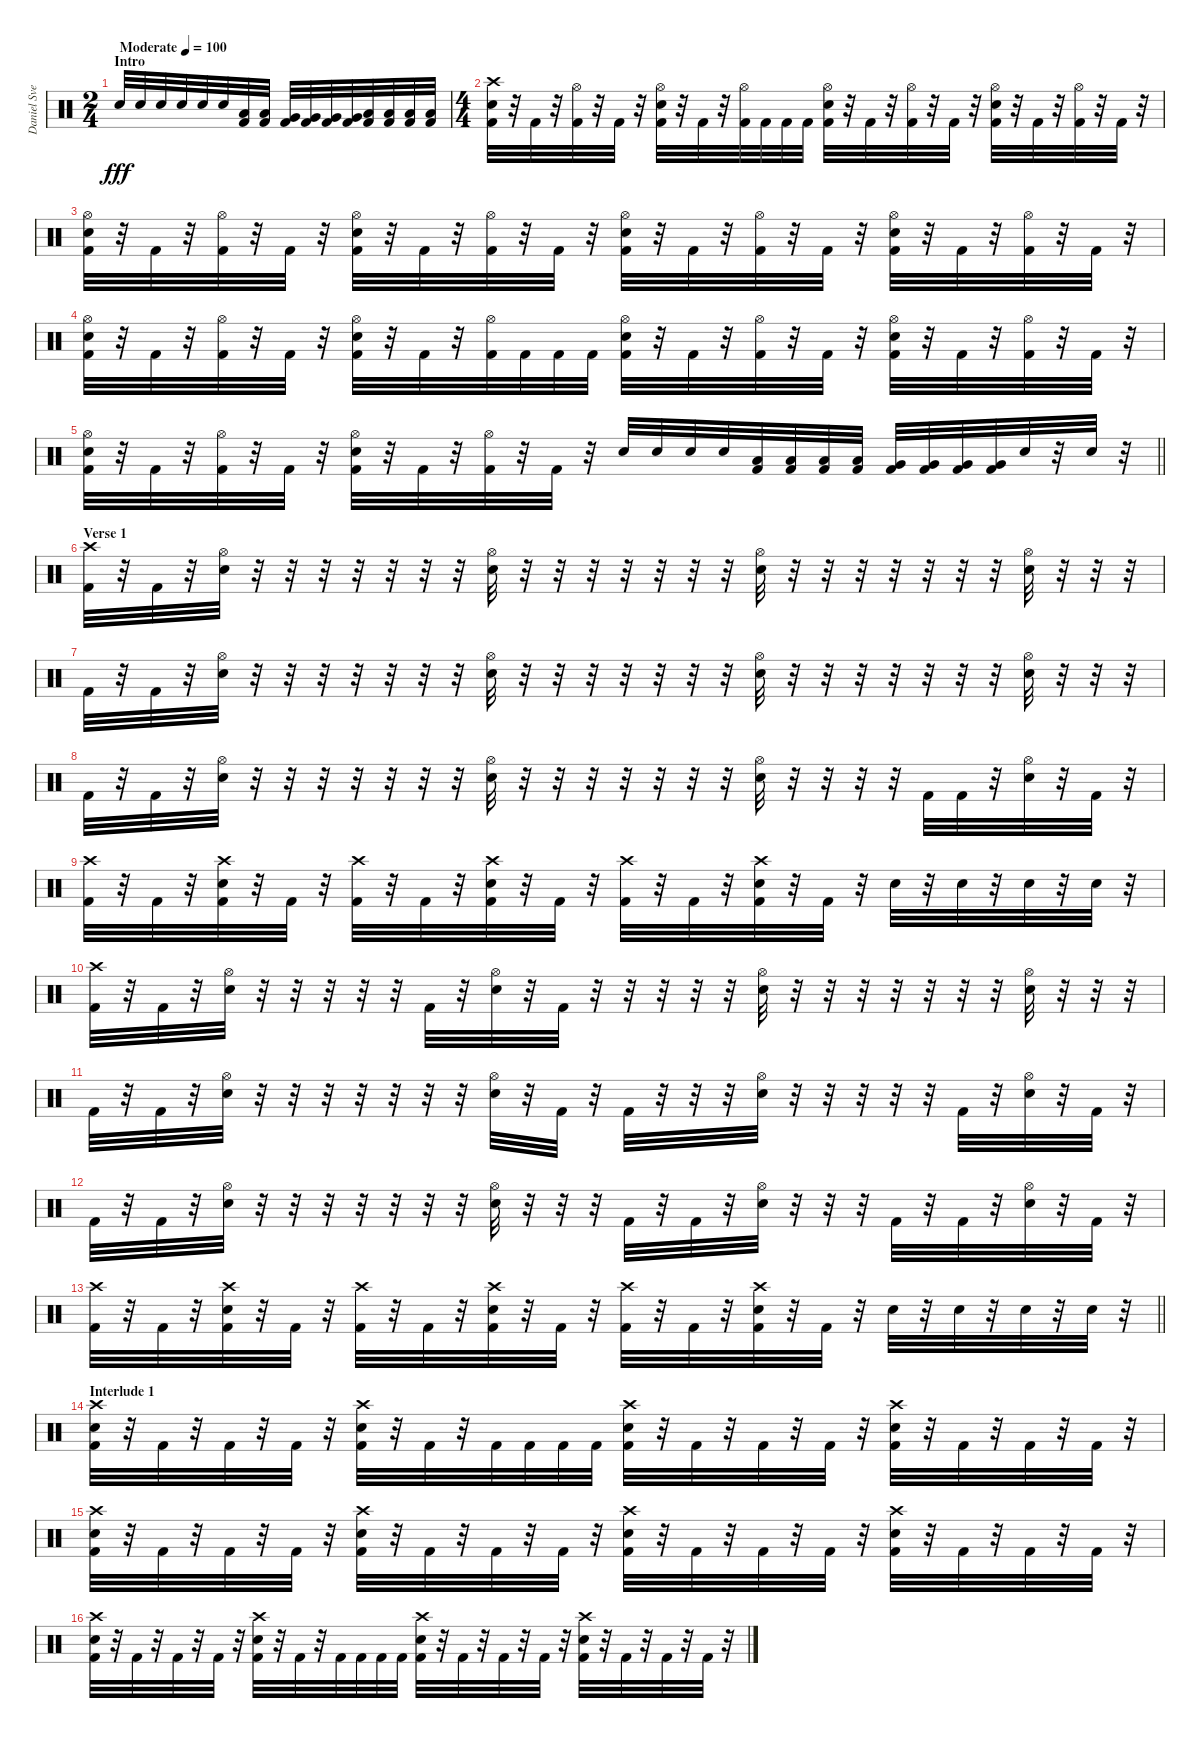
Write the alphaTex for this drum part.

\track ("Daniel Svensson" "Daniel Sve") {instrument percussion}
\staff {score}
\articulation defaults
\ts (2 4)
\section ("" "Intro")
\tempo (100 "Moderate")
\clef neutral
\ks c "Electric Snare (hit)".32{dy fff} "Electric Snare (hit)".32 "Electric Snare (hit)".32 "Electric Snare (hit)".32 "Electric Snare (hit)".32 "Electric Snare (hit)".32
("Low Tom (hit)" "Kick (hit) 2").32 ("Low Tom (hit)" "Kick (hit) 2").32 ("Very Low Tom (hit)" "Kick (hit) 2").32 ("Very Low Tom (hit)" "Kick (hit) 2").32 ("Very Low Tom (hit)" "Kick (hit) 2").32 ("Very Low Tom (hit)" "Kick (hit) 2").32 ("Low Floor Tom (hit)" "Kick (hit) 2").32 ("Low Floor Tom (hit)" "Kick (hit) 2").32 ("Low Floor Tom (hit)" "Kick (hit) 2").32 ("Low Floor Tom (hit)" "Kick (hit) 2").32 |
\ts (4 4)
("Crash high (hit)" "Electric Snare (hit)" "Kick (hit) 2").32 r.32 "Kick (hit) 2".32 r.32 ("Hi-Hat (open)" "Kick (hit) 2").32 r.32 "Kick (hit) 2".32 r.32 ("Hi-Hat (open)" "Electric Snare (hit)" "Kick (hit) 2").32 r.32 "Kick (hit) 2".32 r.32 ("Hi-Hat (open)" "Kick (hit) 2").32 "Kick (hit) 2".32 "Kick (hit) 2".32 "Kick (hit) 2".32 ("Hi-Hat (open)" "Electric Snare (hit)" "Kick (hit) 2").32 r.32 "Kick (hit) 2".32 r.32 ("Hi-Hat (open)" "Kick (hit) 2").32 r.32 "Kick (hit) 2".32 r.32 ("Hi-Hat (open)" "Electric Snare (hit)" "Kick (hit) 2").32 r.32 "Kick (hit) 2".32 r.32 ("Hi-Hat (open)" "Kick (hit) 2").32 r.32 "Kick (hit) 2".32 r.32 |
("Hi-Hat (open)" "Electric Snare (hit)" "Kick (hit) 2").32 r.32 "Kick (hit) 2".32 r.32 ("Hi-Hat (open)" "Kick (hit) 2").32 r.32 "Kick (hit) 2".32 r.32 ("Hi-Hat (open)" "Electric Snare (hit)" "Kick (hit) 2").32 r.32 "Kick (hit) 2".32 r.32 ("Hi-Hat (open)" "Kick (hit) 2").32 r.32 "Kick (hit) 2".32 r.32 ("Hi-Hat (open)" "Electric Snare (hit)" "Kick (hit) 2").32 r.32 "Kick (hit) 2".32 r.32 ("Hi-Hat (open)" "Kick (hit) 2").32 r.32 "Kick (hit) 2".32 r.32 ("Hi-Hat (open)" "Electric Snare (hit)" "Kick (hit) 2").32 r.32 "Kick (hit) 2".32 r.32 ("Hi-Hat (open)" "Kick (hit) 2").32 r.32 "Kick (hit) 2".32 r.32 |
("Hi-Hat (open)" "Electric Snare (hit)" "Kick (hit) 2").32 r.32 "Kick (hit) 2".32 r.32 ("Hi-Hat (open)" "Kick (hit) 2").32 r.32 "Kick (hit) 2".32 r.32 ("Hi-Hat (open)" "Electric Snare (hit)" "Kick (hit) 2").32 r.32 "Kick (hit) 2".32 r.32 ("Hi-Hat (open)" "Kick (hit) 2").32 "Kick (hit) 2".32 "Kick (hit) 2".32 "Kick (hit) 2".32 ("Hi-Hat (open)" "Electric Snare (hit)" "Kick (hit) 2").32 r.32 "Kick (hit) 2".32 r.32 ("Hi-Hat (open)" "Kick (hit) 2").32 r.32 "Kick (hit) 2".32 r.32 ("Hi-Hat (open)" "Electric Snare (hit)" "Kick (hit) 2").32 r.32 "Kick (hit) 2".32 r.32 ("Hi-Hat (open)" "Kick (hit) 2").32 r.32 "Kick (hit) 2".32 r.32 |
\barLineRight lightlight
("Hi-Hat (open)" "Electric Snare (hit)" "Kick (hit) 2").32 r.32 "Kick (hit) 2".32 r.32 ("Hi-Hat (open)" "Kick (hit) 2").32 r.32 "Kick (hit) 2".32 r.32 ("Hi-Hat (open)" "Electric Snare (hit)" "Kick (hit) 2").32 r.32 "Kick (hit) 2".32 r.32 ("Hi-Hat (open)" "Kick (hit) 2").32 r.32 "Kick (hit) 2".32 r.32 "Electric Snare (hit)".32 "Electric Snare (hit)".32 "Electric Snare (hit)".32 "Electric Snare (hit)".32 ("Low Tom (hit)" "Kick (hit) 2").32 ("Low Tom (hit)" "Kick (hit) 2").32 ("Low Tom (hit)" "Kick (hit) 2").32 ("Low Tom (hit)" "Kick (hit) 2").32 ("Very Low Tom (hit)" "Kick (hit) 2").32 ("Very Low Tom (hit)" "Kick (hit) 2").32 ("Very Low Tom (hit)" "Kick (hit) 2").32 ("Very Low Tom (hit)" "Kick (hit) 2").32 "Electric Snare (hit)".32 r.32 "Electric Snare (hit)".32 r.32 |
\section ("" "Verse 1")
("Crash high (hit)" "Kick (hit) 2").32 r.32 "Kick (hit) 2".32 r.32 ("Hi-Hat (open)" "Electric Snare (hit)").32 r.32 r.32 r.32 r.32 r.32 r.32 r.32 ("Hi-Hat (open)" "Electric Snare (hit)").32 r.32 r.32 r.32 r.32 r.32 r.32 r.32 ("Hi-Hat (open)" "Electric Snare (hit)").32 r.32 r.32 r.32 r.32 r.32 r.32 r.32 ("Hi-Hat (open)" "Electric Snare (hit)").32 r.32 r.32 r.32 |
"Kick (hit) 2".32 r.32 "Kick (hit) 2".32 r.32 ("Hi-Hat (open)" "Electric Snare (hit)").32 r.32 r.32 r.32 r.32 r.32 r.32 r.32 ("Hi-Hat (open)" "Electric Snare (hit)").32 r.32 r.32 r.32 r.32 r.32 r.32 r.32 ("Hi-Hat (open)" "Electric Snare (hit)").32 r.32 r.32 r.32 r.32 r.32 r.32 r.32 ("Hi-Hat (open)" "Electric Snare (hit)").32 r.32 r.32 r.32 |
"Kick (hit) 2".32 r.32 "Kick (hit) 2".32 r.32 ("Hi-Hat (open)" "Electric Snare (hit)").32 r.32 r.32 r.32 r.32 r.32 r.32 r.32 ("Hi-Hat (open)" "Electric Snare (hit)").32 r.32 r.32 r.32 r.32 r.32 r.32 r.32 ("Hi-Hat (open)" "Electric Snare (hit)").32 r.32 r.32 r.32 r.32 "Kick (hit) 2".32 "Kick (hit) 2".32 r.32 ("Hi-Hat (open)" "Electric Snare (hit)").32 r.32 "Kick (hit) 2".32 r.32 |
("Crash high (hit)" "Kick (hit) 2").32 r.32 "Kick (hit) 2".32 r.32 ("Crash high (hit)" "Electric Snare (hit)" "Kick (hit) 2").32 r.32 "Kick (hit) 2".32 r.32 ("Crash high (hit)" "Kick (hit) 2").32 r.32 "Kick (hit) 2".32 r.32 ("Crash high (hit)" "Electric Snare (hit)" "Kick (hit) 2").32 r.32 "Kick (hit) 2".32 r.32 ("Crash high (hit)" "Kick (hit) 2").32 r.32 "Kick (hit) 2".32 r.32 ("Crash high (hit)" "Electric Snare (hit)" "Kick (hit) 2").32 r.32 "Kick (hit) 2".32 r.32 "Electric Snare (hit)".32 r.32 "Electric Snare (hit)".32 r.32 "Electric Snare (hit)".32 r.32 "Electric Snare (hit)".32 r.32 |
("Crash high (hit)" "Kick (hit) 2").32 r.32 "Kick (hit) 2".32 r.32 ("Hi-Hat (open)" "Electric Snare (hit)").32 r.32 r.32 r.32 r.32 r.32 "Kick (hit) 2".32 r.32 ("Hi-Hat (open)" "Electric Snare (hit)").32 r.32 "Kick (hit) 2".32 r.32 r.32 r.32 r.32 r.32 ("Hi-Hat (open)" "Electric Snare (hit)").32 r.32 r.32 r.32 r.32 r.32 r.32 r.32 ("Hi-Hat (open)" "Electric Snare (hit)").32 r.32 r.32 r.32 |
"Kick (hit) 2".32 r.32 "Kick (hit) 2".32 r.32 ("Hi-Hat (open)" "Electric Snare (hit)").32 r.32 r.32 r.32 r.32 r.32 r.32 r.32 ("Hi-Hat (open)" "Electric Snare (hit)").32 r.32 "Kick (hit) 2".32 r.32 "Kick (hit) 2".32 r.32 r.32 r.32 ("Hi-Hat (open)" "Electric Snare (hit)").32 r.32 r.32 r.32 r.32 r.32 "Kick (hit) 2".32 r.32 ("Hi-Hat (open)" "Electric Snare (hit)").32 r.32 "Kick (hit) 2".32 r.32 |
"Kick (hit) 2".32 r.32 "Kick (hit) 2".32 r.32 ("Hi-Hat (open)" "Electric Snare (hit)").32 r.32 r.32 r.32 r.32 r.32 r.32 r.32 ("Hi-Hat (open)" "Electric Snare (hit)").32 r.32 r.32 r.32 "Kick (hit) 2".32 r.32 "Kick (hit) 2".32 r.32 ("Hi-Hat (open)" "Electric Snare (hit)").32 r.32 r.32 r.32 "Kick (hit) 2".32 r.32 "Kick (hit) 2".32 r.32 ("Hi-Hat (open)" "Electric Snare (hit)").32 r.32 "Kick (hit) 2".32 r.32 |
\barLineRight lightlight
("Crash high (hit)" "Kick (hit) 2").32 r.32 "Kick (hit) 2".32 r.32 ("Crash high (hit)" "Electric Snare (hit)" "Kick (hit) 2").32 r.32 "Kick (hit) 2".32 r.32 ("Crash high (hit)" "Kick (hit) 2").32 r.32 "Kick (hit) 2".32 r.32 ("Crash high (hit)" "Electric Snare (hit)" "Kick (hit) 2").32 r.32 "Kick (hit) 2".32 r.32 ("Crash high (hit)" "Kick (hit) 2").32 r.32 "Kick (hit) 2".32 r.32 ("Crash high (hit)" "Electric Snare (hit)" "Kick (hit) 2").32 r.32 "Kick (hit) 2".32 r.32 "Electric Snare (hit)".32 r.32 "Electric Snare (hit)".32 r.32 "Electric Snare (hit)".32 r.32 "Electric Snare (hit)".32 r.32 |
\section ("" "Interlude 1")
("Crash high (hit)" "Electric Snare (hit)" "Kick (hit) 2").32 r.32 "Kick (hit) 2".32 r.32 "Kick (hit) 2".32 r.32 "Kick (hit) 2".32 r.32 ("Crash high (hit)" "Electric Snare (hit)" "Kick (hit) 2").32 r.32 "Kick (hit) 2".32 r.32 "Kick (hit) 2".32 "Kick (hit) 2".32 "Kick (hit) 2".32 "Kick (hit) 2".32 ("Crash high (hit)" "Electric Snare (hit)" "Kick (hit) 2").32 r.32 "Kick (hit) 2".32 r.32 "Kick (hit) 2".32 r.32 "Kick (hit) 2".32 r.32 ("Crash high (hit)" "Electric Snare (hit)" "Kick (hit) 2").32 r.32 "Kick (hit) 2".32 r.32 "Kick (hit) 2".32 r.32 "Kick (hit) 2".32 r.32 |
("Crash high (hit)" "Electric Snare (hit)" "Kick (hit) 2").32 r.32 "Kick (hit) 2".32 r.32 "Kick (hit) 2".32 r.32 "Kick (hit) 2".32 r.32 ("Crash high (hit)" "Electric Snare (hit)" "Kick (hit) 2").32 r.32 "Kick (hit) 2".32 r.32 "Kick (hit) 2".32 r.32 "Kick (hit) 2".32 r.32 ("Crash high (hit)" "Electric Snare (hit)" "Kick (hit) 2").32 r.32 "Kick (hit) 2".32 r.32 "Kick (hit) 2".32 r.32 "Kick (hit) 2".32 r.32 ("Crash high (hit)" "Electric Snare (hit)" "Kick (hit) 2").32 r.32 "Kick (hit) 2".32 r.32 "Kick (hit) 2".32 r.32 "Kick (hit) 2".32 r.32 |
("Crash high (hit)" "Electric Snare (hit)" "Kick (hit) 2").32 r.32 "Kick (hit) 2".32 r.32 "Kick (hit) 2".32 r.32 "Kick (hit) 2".32 r.32 ("Crash high (hit)" "Electric Snare (hit)" "Kick (hit) 2").32 r.32 "Kick (hit) 2".32 r.32 "Kick (hit) 2".32 "Kick (hit) 2".32 "Kick (hit) 2".32 "Kick (hit) 2".32 ("Crash high (hit)" "Electric Snare (hit)" "Kick (hit) 2").32 r.32 "Kick (hit) 2".32 r.32 "Kick (hit) 2".32 r.32 "Kick (hit) 2".32 r.32 ("Crash high (hit)" "Electric Snare (hit)" "Kick (hit) 2").32 r.32 "Kick (hit) 2".32 r.32 "Kick (hit) 2".32 r.32 "Kick (hit) 2".32 r.32
